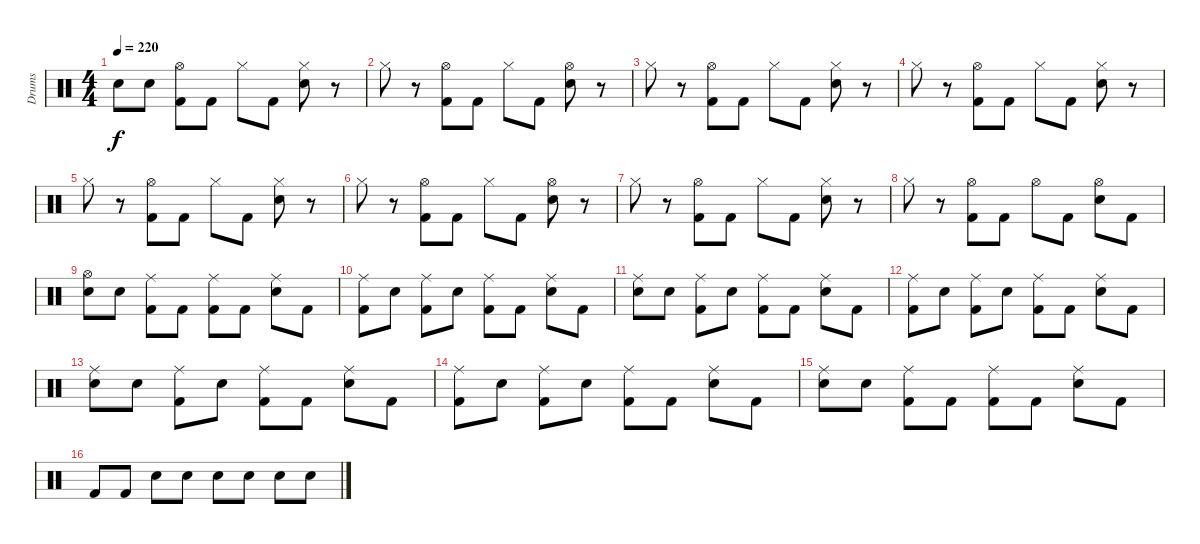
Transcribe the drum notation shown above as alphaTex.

\track ("Drums" "Drums") {instrument percussion}
\staff {score}
\articulation defaults
\ts (4 4)
\tempo 220
\clef neutral
\ks c "Electric Snare (hit)".8{dy f} "Electric Snare (hit)".8
("Hi-Hat (open)" "Kick (hit) 2").8 "Kick (hit) 2".8 "Hi-Hat (closed)".8 "Kick (hit) 2".8 ("Hi-Hat (closed)" "Electric Snare (hit)").8 r.8 |
"Hi-Hat (closed)".8 r.8 ("Hi-Hat (open)" "Kick (hit) 2").8 "Kick (hit) 2".8 "Hi-Hat (closed)".8 "Kick (hit) 2".8 ("Hi-Hat (open)" "Electric Snare (hit)").8 r.8 |
"Hi-Hat (closed)".8 r.8 ("Hi-Hat (open)" "Kick (hit) 2").8 "Kick (hit) 2".8 "Hi-Hat (closed)".8 "Kick (hit) 2".8 ("Hi-Hat (closed)" "Electric Snare (hit)").8 r.8 |
"Hi-Hat (closed)".8 r.8 ("Hi-Hat (open)" "Kick (hit) 2").8 "Kick (hit) 2".8 "Hi-Hat (closed)".8 "Kick (hit) 2".8 ("Hi-Hat (closed)" "Electric Snare (hit)").8 r.8 |
"Hi-Hat (closed)".8 r.8 ("Hi-Hat (open)" "Kick (hit) 2").8 "Kick (hit) 2".8 "Hi-Hat (closed)".8 "Kick (hit) 2".8 ("Hi-Hat (closed)" "Electric Snare (hit)").8 r.8 |
"Hi-Hat (closed)".8 r.8 ("Hi-Hat (open)" "Kick (hit) 2").8 "Kick (hit) 2".8 "Hi-Hat (closed)".8 "Kick (hit) 2".8 ("Hi-Hat (open)" "Electric Snare (hit)").8 r.8 |
"Hi-Hat (closed)".8 r.8 ("Hi-Hat (open)" "Kick (hit) 2").8 "Kick (hit) 2".8 "Hi-Hat (closed)".8 "Kick (hit) 2".8 ("Hi-Hat (closed)" "Electric Snare (hit)").8 r.8 |
"Hi-Hat (closed)".8 r.8 ("Hi-Hat (open)" "Kick (hit) 2").8 "Kick (hit) 2".8 "Hi-Hat (open)".8 "Kick (hit) 2".8 ("Hi-Hat (open)" "Electric Snare (hit)").8 "Kick (hit) 2".8 |
("Hi-Hat (open)" "Electric Snare (hit)").8 "Electric Snare (hit)".8 ("Ride (middle)" "Kick (hit) 2").8 "Kick (hit) 2".8 ("Ride (middle)" "Kick (hit) 2").8 "Kick (hit) 2".8 ("Ride (middle)" "Electric Snare (hit)").8 "Kick (hit) 2".8 |
("Ride (middle)" "Kick (hit) 2").8 "Electric Snare (hit)".8 ("Ride (middle)" "Kick (hit) 2").8 "Electric Snare (hit)".8 ("Ride (middle)" "Kick (hit) 2").8 "Kick (hit) 2".8 ("Ride (middle)" "Electric Snare (hit)").8 "Kick (hit) 2".8 |
("Ride (middle)" "Electric Snare (hit)").8 "Electric Snare (hit)".8 ("Ride (middle)" "Kick (hit) 2").8 "Electric Snare (hit)".8 ("Ride (middle)" "Kick (hit) 2").8 "Kick (hit) 2".8 ("Ride (middle)" "Electric Snare (hit)").8 "Kick (hit) 2".8 |
("Ride (middle)" "Kick (hit) 2").8 "Electric Snare (hit)".8 ("Ride (middle)" "Kick (hit) 2").8 "Electric Snare (hit)".8 ("Ride (middle)" "Kick (hit) 2").8 "Kick (hit) 2".8 ("Ride (middle)" "Electric Snare (hit)").8 "Kick (hit) 2".8 |
("Ride (middle)" "Electric Snare (hit)").8 "Electric Snare (hit)".8 ("Ride (middle)" "Kick (hit) 2").8 "Electric Snare (hit)".8 ("Ride (middle)" "Kick (hit) 2").8 "Kick (hit) 2".8 ("Ride (middle)" "Electric Snare (hit)").8 "Kick (hit) 2".8 |
("Ride (middle)" "Kick (hit) 2").8 "Electric Snare (hit)".8 ("Ride (middle)" "Kick (hit) 2").8 "Electric Snare (hit)".8 ("Ride (middle)" "Kick (hit) 2").8 "Kick (hit) 2".8 ("Ride (middle)" "Electric Snare (hit)").8 "Kick (hit) 2".8 |
("Ride (middle)" "Electric Snare (hit)").8 "Electric Snare (hit)".8 ("Ride (middle)" "Kick (hit) 2").8 "Kick (hit) 2".8 ("Ride (middle)" "Kick (hit) 2").8 "Kick (hit) 2".8 ("Ride (middle)" "Electric Snare (hit)").8 "Kick (hit) 2".8 |
"Kick (hit) 2".8 "Kick (hit) 2".8 "Electric Snare (hit)".8 "Electric Snare (hit)".8 "Electric Snare (hit)".8 "Electric Snare (hit)".8 "Electric Snare (hit)".8 "Electric Snare (hit)".8
